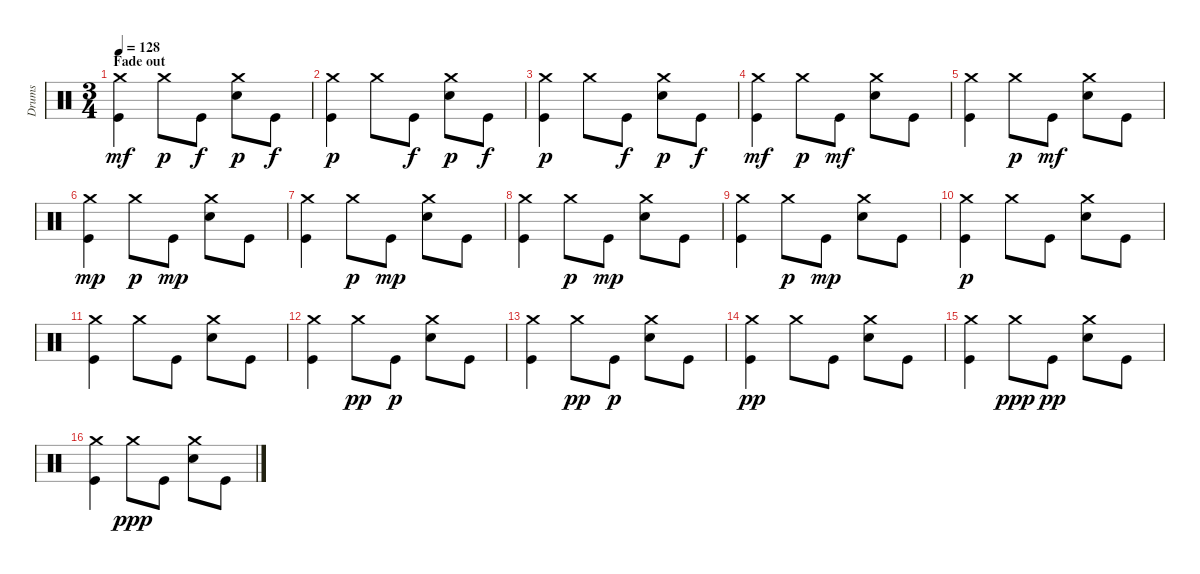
\track ("Drums" "Drums") {instrument percussion}
\staff {score}
\articulation defaults
\ts (3 4)
\section ("" "Fade out")
\tempo 128
\clef neutral
\ks c
("Crash medium (hit)" "Kick (hit)").4{dy mf} "Crash medium (hit)".8{dy p} "Kick (hit)".8{dy f} ("Crash medium (hit)" "Electric Snare (hit)").8{dy p} "Kick (hit)".8{dy f} |
("Crash medium (hit)" "Kick (hit)").4{dy p} "Crash medium (hit)".8 "Kick (hit)".8{dy f} ("Crash medium (hit)" "Electric Snare (hit)").8{dy p} "Kick (hit)".8{dy f} |
("Crash medium (hit)" "Kick (hit)").4{dy p} "Crash medium (hit)".8 "Kick (hit)".8{dy f} ("Crash medium (hit)" "Electric Snare (hit)").8{dy p} "Kick (hit)".8{dy f} |
("Crash medium (hit)" "Kick (hit)").4{dy mf} "Crash medium (hit)".8{dy p} "Kick (hit)".8{dy mf} ("Crash medium (hit)" "Electric Snare (hit)").8 "Kick (hit)".8 |
("Crash medium (hit)" "Kick (hit)").4 "Crash medium (hit)".8{dy p} "Kick (hit)".8{dy mf} ("Crash medium (hit)" "Electric Snare (hit)").8 "Kick (hit)".8 |
("Crash medium (hit)" "Kick (hit)").4{dy mp} "Crash medium (hit)".8{dy p} "Kick (hit)".8{dy mp} ("Crash medium (hit)" "Electric Snare (hit)").8 "Kick (hit)".8 |
("Crash medium (hit)" "Kick (hit)").4 "Crash medium (hit)".8{dy p} "Kick (hit)".8{dy mp} ("Crash medium (hit)" "Electric Snare (hit)").8 "Kick (hit)".8 |
("Crash medium (hit)" "Kick (hit)").4 "Crash medium (hit)".8{dy p} "Kick (hit)".8{dy mp} ("Crash medium (hit)" "Electric Snare (hit)").8 "Kick (hit)".8 |
("Crash medium (hit)" "Kick (hit)").4 "Crash medium (hit)".8{dy p} "Kick (hit)".8{dy mp} ("Crash medium (hit)" "Electric Snare (hit)").8 "Kick (hit)".8 |
("Crash medium (hit)" "Kick (hit)").4{dy p} "Crash medium (hit)".8 "Kick (hit)".8 ("Crash medium (hit)" "Electric Snare (hit)").8 "Kick (hit)".8 |
("Crash medium (hit)" "Kick (hit)").4 "Crash medium (hit)".8 "Kick (hit)".8 ("Crash medium (hit)" "Electric Snare (hit)").8 "Kick (hit)".8 |
("Crash medium (hit)" "Kick (hit)").4 "Crash medium (hit)".8{dy pp} "Kick (hit)".8{dy p} ("Crash medium (hit)" "Electric Snare (hit)").8 "Kick (hit)".8 |
("Crash medium (hit)" "Kick (hit)").4 "Crash medium (hit)".8{dy pp} "Kick (hit)".8{dy p} ("Crash medium (hit)" "Electric Snare (hit)").8 "Kick (hit)".8 |
("Crash medium (hit)" "Kick (hit)").4{dy pp} "Crash medium (hit)".8 "Kick (hit)".8 ("Crash medium (hit)" "Electric Snare (hit)").8 "Kick (hit)".8 |
("Crash medium (hit)" "Kick (hit)").4 "Crash medium (hit)".8{dy ppp} "Kick (hit)".8{dy pp} ("Crash medium (hit)" "Electric Snare (hit)").8 "Kick (hit)".8 |
("Crash medium (hit)" "Kick (hit)").4 "Crash medium (hit)".8{dy ppp} "Kick (hit)".8 ("Crash medium (hit)" "Electric Snare (hit)").8 "Kick (hit)".8
